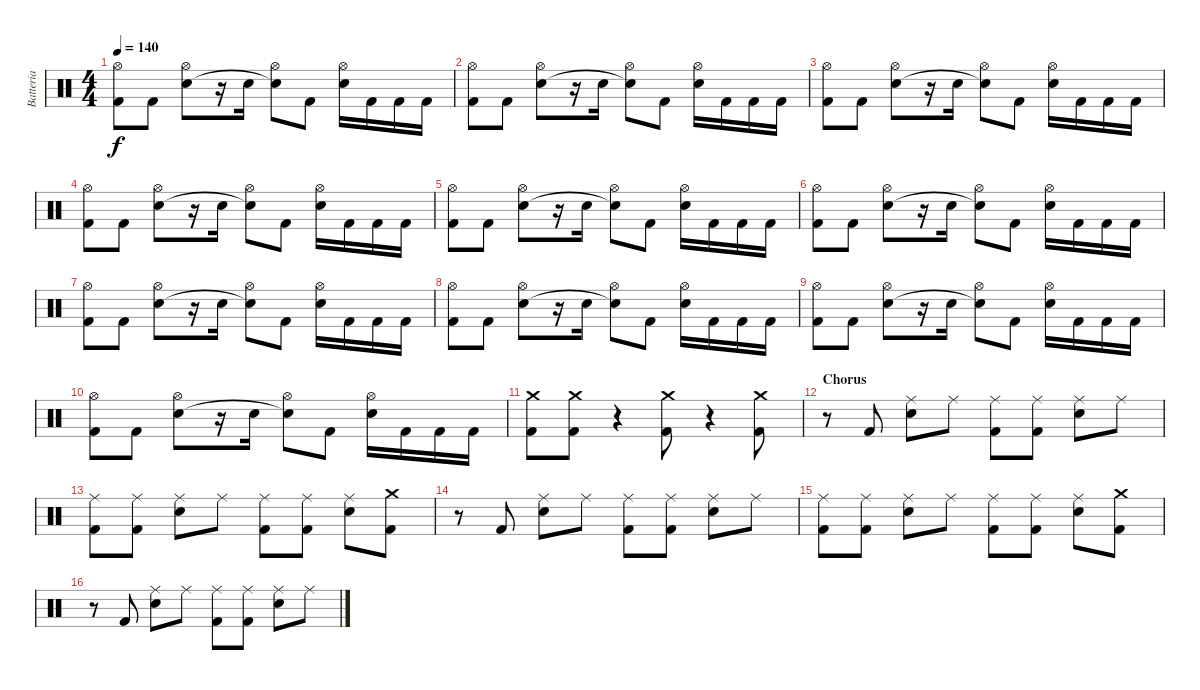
\track ("Batteria" "Batteria") {instrument percussion}
\staff {score}
\articulation defaults
\ts (4 4)
\tempo 140
\clef neutral
\ks c
("Hi-Hat (open)" "Kick (hit) 2").8{dy f} "Kick (hit) 2".8 ("Hi-Hat (open)" "Snare (hit) 2").8 r.16 "Snare (hit) 2".16 ("Hi-Hat (open)" "Snare (hit) 2"{t}).8 "Kick (hit) 2".8 ("Hi-Hat (open)" "Snare (hit) 2").16 "Kick (hit) 2".16 "Kick (hit) 2".16 "Kick (hit) 2".16 |
("Hi-Hat (open)" "Kick (hit) 2").8 "Kick (hit) 2".8 ("Hi-Hat (open)" "Snare (hit) 2").8 r.16 "Snare (hit) 2".16 ("Hi-Hat (open)" "Snare (hit) 2"{t}).8 "Kick (hit) 2".8 ("Hi-Hat (open)" "Snare (hit) 2").16 "Kick (hit) 2".16 "Kick (hit) 2".16 "Kick (hit) 2".16 |
("Hi-Hat (open)" "Kick (hit) 2").8 "Kick (hit) 2".8 ("Hi-Hat (open)" "Snare (hit) 2").8 r.16 "Snare (hit) 2".16 ("Hi-Hat (open)" "Snare (hit) 2"{t}).8 "Kick (hit) 2".8 ("Hi-Hat (open)" "Snare (hit) 2").16 "Kick (hit) 2".16 "Kick (hit) 2".16 "Kick (hit) 2".16 |
("Hi-Hat (open)" "Kick (hit) 2").8 "Kick (hit) 2".8 ("Hi-Hat (open)" "Snare (hit) 2").8 r.16 "Snare (hit) 2".16 ("Hi-Hat (open)" "Snare (hit) 2"{t}).8 "Kick (hit) 2".8 ("Hi-Hat (open)" "Snare (hit) 2").16 "Kick (hit) 2".16 "Kick (hit) 2".16 "Kick (hit) 2".16 |
("Hi-Hat (open)" "Kick (hit) 2").8 "Kick (hit) 2".8 ("Hi-Hat (open)" "Snare (hit) 2").8 r.16 "Snare (hit) 2".16 ("Hi-Hat (open)" "Snare (hit) 2"{t}).8 "Kick (hit) 2".8 ("Hi-Hat (open)" "Snare (hit) 2").16 "Kick (hit) 2".16 "Kick (hit) 2".16 "Kick (hit) 2".16 |
("Hi-Hat (open)" "Kick (hit) 2").8 "Kick (hit) 2".8 ("Hi-Hat (open)" "Snare (hit) 2").8 r.16 "Snare (hit) 2".16 ("Hi-Hat (open)" "Snare (hit) 2"{t}).8 "Kick (hit) 2".8 ("Hi-Hat (open)" "Snare (hit) 2").16 "Kick (hit) 2".16 "Kick (hit) 2".16 "Kick (hit) 2".16 |
("Hi-Hat (open)" "Kick (hit) 2").8 "Kick (hit) 2".8 ("Hi-Hat (open)" "Snare (hit) 2").8 r.16 "Snare (hit) 2".16 ("Hi-Hat (open)" "Snare (hit) 2"{t}).8 "Kick (hit) 2".8 ("Hi-Hat (open)" "Snare (hit) 2").16 "Kick (hit) 2".16 "Kick (hit) 2".16 "Kick (hit) 2".16 |
("Hi-Hat (open)" "Kick (hit) 2").8 "Kick (hit) 2".8 ("Hi-Hat (open)" "Snare (hit) 2").8 r.16 "Snare (hit) 2".16 ("Hi-Hat (open)" "Snare (hit) 2"{t}).8 "Kick (hit) 2".8 ("Hi-Hat (open)" "Snare (hit) 2").16 "Kick (hit) 2".16 "Kick (hit) 2".16 "Kick (hit) 2".16 |
("Hi-Hat (open)" "Kick (hit) 2").8 "Kick (hit) 2".8 ("Hi-Hat (open)" "Snare (hit) 2").8 r.16 "Snare (hit) 2".16 ("Hi-Hat (open)" "Snare (hit) 2"{t}).8 "Kick (hit) 2".8 ("Hi-Hat (open)" "Snare (hit) 2").16 "Kick (hit) 2".16 "Kick (hit) 2".16 "Kick (hit) 2".16 |
("Hi-Hat (open)" "Kick (hit) 2").8 "Kick (hit) 2".8 ("Hi-Hat (open)" "Snare (hit) 2").8 r.16 "Snare (hit) 2".16 ("Hi-Hat (open)" "Snare (hit) 2"{t}).8 "Kick (hit) 2".8 ("Hi-Hat (open)" "Snare (hit) 2").16 "Kick (hit) 2".16 "Kick (hit) 2".16 "Kick (hit) 2".16 |
("Crash medium (hit)" "Kick (hit) 2").8 ("Crash medium (hit)" "Kick (hit) 2").8 r.4 ("Crash medium (hit)" "Kick (hit) 2").8 r.4 ("Crash medium (hit)" "Kick (hit) 2").8 |
\section ("" "Chorus")
r.8 "Kick (hit) 2".8 ("Ride (middle)" "Snare (hit) 2").8 "Ride (middle)".8 ("Ride (middle)" "Kick (hit) 2").8 ("Ride (middle)" "Kick (hit) 2").8 ("Ride (middle)" "Snare (hit) 2").8 "Ride (middle)".8 |
("Ride (middle)" "Kick (hit) 2").8 ("Ride (middle)" "Kick (hit) 2").8 ("Ride (middle)" "Snare (hit) 2").8 "Ride (middle)".8 ("Ride (middle)" "Kick (hit) 2").8 ("Ride (middle)" "Kick (hit) 2").8 ("Ride (middle)" "Snare (hit) 2").8 ("Crash medium (hit)" "Kick (hit) 2").8 |
r.8 "Kick (hit) 2".8 ("Ride (middle)" "Snare (hit) 2").8 "Ride (middle)".8 ("Ride (middle)" "Kick (hit) 2").8 ("Ride (middle)" "Kick (hit) 2").8 ("Ride (middle)" "Snare (hit) 2").8 "Ride (middle)".8 |
("Ride (middle)" "Kick (hit) 2").8 ("Ride (middle)" "Kick (hit) 2").8 ("Ride (middle)" "Snare (hit) 2").8 "Ride (middle)".8 ("Ride (middle)" "Kick (hit) 2").8 ("Ride (middle)" "Kick (hit) 2").8 ("Ride (middle)" "Snare (hit) 2").8 ("Crash medium (hit)" "Kick (hit) 2").8 |
r.8 "Kick (hit) 2".8 ("Ride (middle)" "Snare (hit) 2").8 "Ride (middle)".8 ("Ride (middle)" "Kick (hit) 2").8 ("Ride (middle)" "Kick (hit) 2").8 ("Ride (middle)" "Snare (hit) 2").8 "Ride (middle)".8
